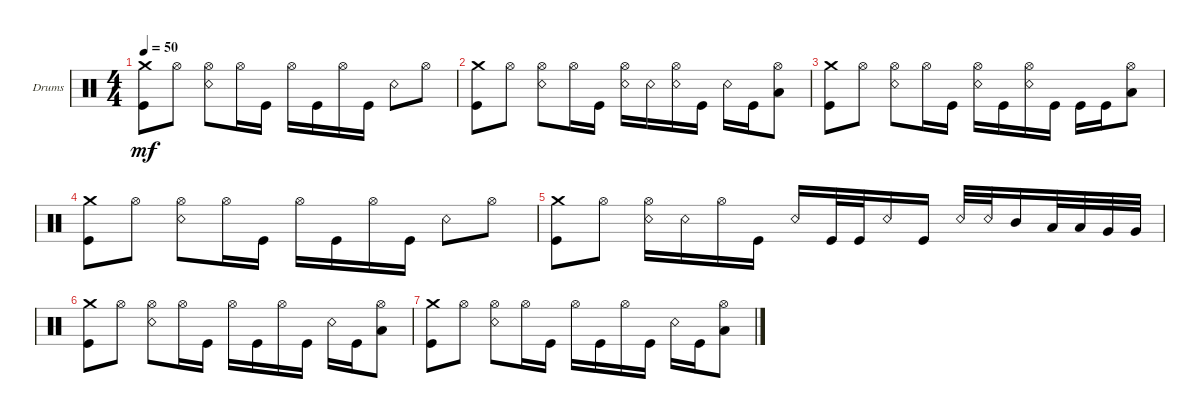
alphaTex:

\defaultSystemsLayout 4
\bracketExtendMode groupsimilarinstruments
\firstSystemTrackNameOrientation horizontal
\otherSystemsTrackNameOrientation horizontal
\track ("Илья" "Drums") {instrument percussion}
\staff {score}
\articulation defaults
\ts (4 4)
\tempo 50
\clef neutral
\ks c
("Crash medium (hit)" "Kick (hit)").8{dy mf} "Hi-Hat (open)".8 ("Snare (rim shot)" "Hi-Hat (open)").8 "Hi-Hat (open)".16 "Kick (hit)".16 "Hi-Hat (open)".16 "Kick (hit)".16 "Hi-Hat (open)".16 "Kick (hit)".16 "Snare (rim shot)".8 "Hi-Hat (open)".8 |
("Crash medium (hit)" "Kick (hit)").8 "Hi-Hat (open)".8 ("Hi-Hat (open)" "Snare (rim shot)").8 "Hi-Hat (open)".16 "Kick (hit)".16 ("Hi-Hat (open)" "Snare (rim shot)").16 "Snare (rim shot)".16 ("Hi-Hat (open)" "Snare (rim shot)").16 "Kick (hit)".16 "Snare (rim shot)".16 "Kick (hit)".16 ("Low Tom (hit)" "Hi-Hat (open)").8 |
("Crash medium (hit)" "Kick (hit)").8 "Hi-Hat (open)".8 ("Hi-Hat (open)" "Snare (rim shot)").8 "Hi-Hat (open)".16 "Kick (hit)".16 ("Hi-Hat (open)" "Snare (rim shot)").16 "Kick (hit)".16 ("Hi-Hat (open)" "Snare (rim shot)").16 "Kick (hit)".16 "Kick (hit)".16 "Kick (hit)".16 ("Low Tom (hit)" "Hi-Hat (open)").8 |
("Crash medium (hit)" "Kick (hit)").8 "Hi-Hat (open)".8 ("Snare (rim shot)" "Hi-Hat (open)").8 "Hi-Hat (open)".16 "Kick (hit)".16 "Hi-Hat (open)".16 "Kick (hit)".16 "Hi-Hat (open)".16 "Kick (hit)".16 "Snare (rim shot)".8 "Hi-Hat (open)".8 |
("Crash medium (hit)" "Kick (hit)").8 "Hi-Hat (open)".8 ("Snare (rim shot)" "Hi-Hat (open)").16 "Snare (rim shot)".16 "Hi-Hat (open)".16 "Kick (hit)".16 "Snare (rim shot)".16 "Kick (hit)".32 "Kick (hit)".32 "Snare (rim shot)".16 "Kick (hit)".16 "Snare (rim shot)".32 "Snare (rim shot)".32 "Mid Tom (hit)".16 "Low Tom (hit)".32 "Low Tom (hit)".32 "Very Low Tom (hit)".32 "Very Low Tom (hit)".32 |
("Crash medium (hit)" "Kick (hit)").8 "Hi-Hat (open)".8 ("Hi-Hat (open)" "Snare (rim shot)").8 "Hi-Hat (open)".16 "Kick (hit)".16 "Hi-Hat (open)".16 "Kick (hit)".16 "Hi-Hat (open)".16 "Kick (hit)".16 "Snare (rim shot)".16 "Kick (hit)".16 ("Low Tom (hit)" "Hi-Hat (open)").8 |
("Crash medium (hit)" "Kick (hit)").8 "Hi-Hat (open)".8 ("Hi-Hat (open)" "Snare (rim shot)").8 "Hi-Hat (open)".16 "Kick (hit)".16 "Hi-Hat (open)".16 "Kick (hit)".16 "Hi-Hat (open)".16 "Kick (hit)".16 "Snare (rim shot)".16 "Kick (hit)".16 ("Low Tom (hit)" "Hi-Hat (open)").8
